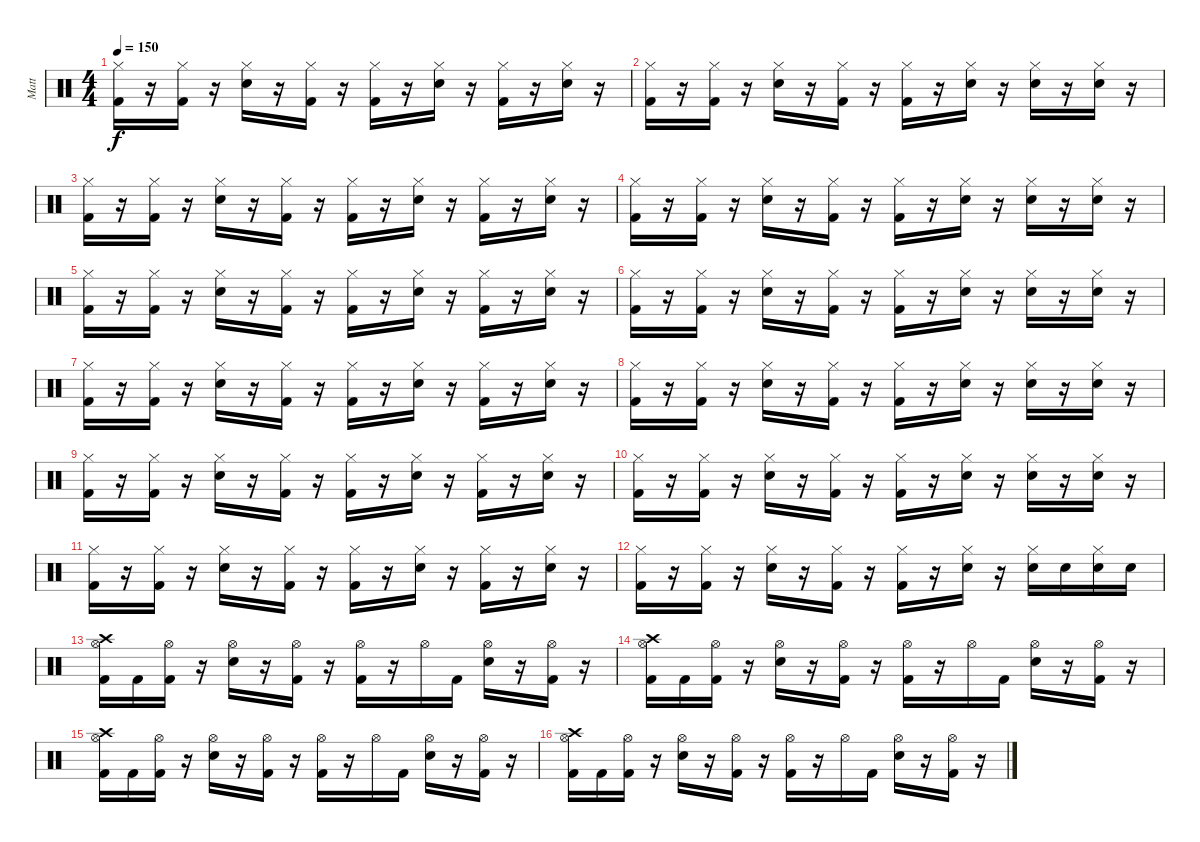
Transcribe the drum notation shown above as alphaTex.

\track ("Matt" "Matt") {instrument percussion}
\staff {score}
\articulation defaults
\ts (4 4)
\tempo 150
\clef neutral
\ks c
("Hi-Hat (closed)" "Kick (hit) 2").16{dy f} r.16 ("Hi-Hat (closed)" "Kick (hit) 2").16 r.16 ("Hi-Hat (closed)" "Snare (hit) 2").16 r.16 ("Hi-Hat (closed)" "Kick (hit) 2").16 r.16 ("Hi-Hat (closed)" "Kick (hit) 2").16 r.16 ("Hi-Hat (closed)" "Snare (hit) 2").16 r.16 ("Hi-Hat (closed)" "Kick (hit) 2").16 r.16 ("Hi-Hat (closed)" "Snare (hit) 2").16 r.16 |
("Hi-Hat (closed)" "Kick (hit) 2").16 r.16 ("Hi-Hat (closed)" "Kick (hit) 2").16 r.16 ("Hi-Hat (closed)" "Snare (hit) 2").16 r.16 ("Hi-Hat (closed)" "Kick (hit) 2").16 r.16 ("Hi-Hat (closed)" "Kick (hit) 2").16 r.16 ("Hi-Hat (closed)" "Snare (hit) 2").16 r.16 ("Hi-Hat (closed)" "Snare (hit) 2").16 r.16 ("Hi-Hat (closed)" "Snare (hit) 2").16 r.16 |
("Hi-Hat (closed)" "Kick (hit) 2").16 r.16 ("Hi-Hat (closed)" "Kick (hit) 2").16 r.16 ("Hi-Hat (closed)" "Snare (hit) 2").16 r.16 ("Hi-Hat (closed)" "Kick (hit) 2").16 r.16 ("Hi-Hat (closed)" "Kick (hit) 2").16 r.16 ("Hi-Hat (closed)" "Snare (hit) 2").16 r.16 ("Hi-Hat (closed)" "Kick (hit) 2").16 r.16 ("Hi-Hat (closed)" "Snare (hit) 2").16 r.16 |
("Hi-Hat (closed)" "Kick (hit) 2").16 r.16 ("Hi-Hat (closed)" "Kick (hit) 2").16 r.16 ("Hi-Hat (closed)" "Snare (hit) 2").16 r.16 ("Hi-Hat (closed)" "Kick (hit) 2").16 r.16 ("Hi-Hat (closed)" "Kick (hit) 2").16 r.16 ("Hi-Hat (closed)" "Snare (hit) 2").16 r.16 ("Hi-Hat (closed)" "Snare (hit) 2").16 r.16 ("Hi-Hat (closed)" "Snare (hit) 2").16 r.16 |
("Hi-Hat (closed)" "Kick (hit) 2").16 r.16 ("Hi-Hat (closed)" "Kick (hit) 2").16 r.16 ("Hi-Hat (closed)" "Snare (hit) 2").16 r.16 ("Hi-Hat (closed)" "Kick (hit) 2").16 r.16 ("Hi-Hat (closed)" "Kick (hit) 2").16 r.16 ("Hi-Hat (closed)" "Snare (hit) 2").16 r.16 ("Hi-Hat (closed)" "Kick (hit) 2").16 r.16 ("Hi-Hat (closed)" "Snare (hit) 2").16 r.16 |
("Hi-Hat (closed)" "Kick (hit) 2").16 r.16 ("Hi-Hat (closed)" "Kick (hit) 2").16 r.16 ("Hi-Hat (closed)" "Snare (hit) 2").16 r.16 ("Hi-Hat (closed)" "Kick (hit) 2").16 r.16 ("Hi-Hat (closed)" "Kick (hit) 2").16 r.16 ("Hi-Hat (closed)" "Snare (hit) 2").16 r.16 ("Hi-Hat (closed)" "Snare (hit) 2").16 r.16 ("Hi-Hat (closed)" "Snare (hit) 2").16 r.16 |
("Hi-Hat (closed)" "Kick (hit) 2").16 r.16 ("Hi-Hat (closed)" "Kick (hit) 2").16 r.16 ("Hi-Hat (closed)" "Snare (hit) 2").16 r.16 ("Hi-Hat (closed)" "Kick (hit) 2").16 r.16 ("Hi-Hat (closed)" "Kick (hit) 2").16 r.16 ("Hi-Hat (closed)" "Snare (hit) 2").16 r.16 ("Hi-Hat (closed)" "Kick (hit) 2").16 r.16 ("Hi-Hat (closed)" "Snare (hit) 2").16 r.16 |
("Hi-Hat (closed)" "Kick (hit) 2").16 r.16 ("Hi-Hat (closed)" "Kick (hit) 2").16 r.16 ("Hi-Hat (closed)" "Snare (hit) 2").16 r.16 ("Hi-Hat (closed)" "Kick (hit) 2").16 r.16 ("Hi-Hat (closed)" "Kick (hit) 2").16 r.16 ("Hi-Hat (closed)" "Snare (hit) 2").16 r.16 ("Hi-Hat (closed)" "Snare (hit) 2").16 r.16 ("Hi-Hat (closed)" "Snare (hit) 2").16 r.16 |
("Hi-Hat (closed)" "Kick (hit) 2").16 r.16 ("Hi-Hat (closed)" "Kick (hit) 2").16 r.16 ("Hi-Hat (closed)" "Snare (hit) 2").16 r.16 ("Hi-Hat (closed)" "Kick (hit) 2").16 r.16 ("Hi-Hat (closed)" "Kick (hit) 2").16 r.16 ("Hi-Hat (closed)" "Snare (hit) 2").16 r.16 ("Hi-Hat (closed)" "Kick (hit) 2").16 r.16 ("Hi-Hat (closed)" "Snare (hit) 2").16 r.16 |
("Hi-Hat (closed)" "Kick (hit) 2").16 r.16 ("Hi-Hat (closed)" "Kick (hit) 2").16 r.16 ("Hi-Hat (closed)" "Snare (hit) 2").16 r.16 ("Hi-Hat (closed)" "Kick (hit) 2").16 r.16 ("Hi-Hat (closed)" "Kick (hit) 2").16 r.16 ("Hi-Hat (closed)" "Snare (hit) 2").16 r.16 ("Hi-Hat (closed)" "Snare (hit) 2").16 r.16 ("Hi-Hat (closed)" "Snare (hit) 2").16 r.16 |
("Hi-Hat (closed)" "Kick (hit) 2").16 r.16 ("Hi-Hat (closed)" "Kick (hit) 2").16 r.16 ("Hi-Hat (closed)" "Snare (hit) 2").16 r.16 ("Hi-Hat (closed)" "Kick (hit) 2").16 r.16 ("Hi-Hat (closed)" "Kick (hit) 2").16 r.16 ("Hi-Hat (closed)" "Snare (hit) 2").16 r.16 ("Hi-Hat (closed)" "Kick (hit) 2").16 r.16 ("Hi-Hat (closed)" "Snare (hit) 2").16 r.16 |
("Hi-Hat (closed)" "Kick (hit) 2").16 r.16 ("Hi-Hat (closed)" "Kick (hit) 2").16 r.16 ("Hi-Hat (closed)" "Snare (hit) 2").16 r.16 ("Hi-Hat (closed)" "Kick (hit) 2").16 r.16 ("Hi-Hat (closed)" "Kick (hit) 2").16 r.16 ("Hi-Hat (closed)" "Snare (hit) 2").16 r.16 ("Hi-Hat (closed)" "Snare (hit) 2").16 "Snare (hit) 2".16 ("Hi-Hat (closed)" "Snare (hit) 2").16 "Snare (hit) 2".16 |
("Crash high (hit)" "Hi-Hat (open)" "Kick (hit) 2").16 "Kick (hit) 2".16 ("Hi-Hat (open)" "Kick (hit) 2").16 r.16 ("Hi-Hat (open)" "Snare (hit) 2").16 r.16 ("Hi-Hat (open)" "Kick (hit) 2").16 r.16 ("Hi-Hat (open)" "Kick (hit) 2").16 r.16 "Hi-Hat (open)".16 "Kick (hit) 2".16 ("Hi-Hat (open)" "Snare (hit) 2").16 r.16 ("Hi-Hat (open)" "Kick (hit) 2").16 r.16 |
("Crash high (hit)" "Hi-Hat (open)" "Kick (hit) 2").16 "Kick (hit) 2".16 ("Hi-Hat (open)" "Kick (hit) 2").16 r.16 ("Hi-Hat (open)" "Snare (hit) 2").16 r.16 ("Hi-Hat (open)" "Kick (hit) 2").16 r.16 ("Hi-Hat (open)" "Kick (hit) 2").16 r.16 "Hi-Hat (open)".16 "Kick (hit) 2".16 ("Hi-Hat (open)" "Snare (hit) 2").16 r.16 ("Hi-Hat (open)" "Kick (hit) 2").16 r.16 |
("Crash high (hit)" "Hi-Hat (open)" "Kick (hit) 2").16 "Kick (hit) 2".16 ("Hi-Hat (open)" "Kick (hit) 2").16 r.16 ("Hi-Hat (open)" "Snare (hit) 2").16 r.16 ("Hi-Hat (open)" "Kick (hit) 2").16 r.16 ("Hi-Hat (open)" "Kick (hit) 2").16 r.16 "Hi-Hat (open)".16 "Kick (hit) 2".16 ("Hi-Hat (open)" "Snare (hit) 2").16 r.16 ("Hi-Hat (open)" "Kick (hit) 2").16 r.16 |
("Crash high (hit)" "Hi-Hat (open)" "Kick (hit) 2").16 "Kick (hit) 2".16 ("Hi-Hat (open)" "Kick (hit) 2").16 r.16 ("Hi-Hat (open)" "Snare (hit) 2").16 r.16 ("Hi-Hat (open)" "Kick (hit) 2").16 r.16 ("Hi-Hat (open)" "Kick (hit) 2").16 r.16 "Hi-Hat (open)".16 "Kick (hit) 2".16 ("Hi-Hat (open)" "Snare (hit) 2").16 r.16 ("Hi-Hat (open)" "Kick (hit) 2").16 r.16
